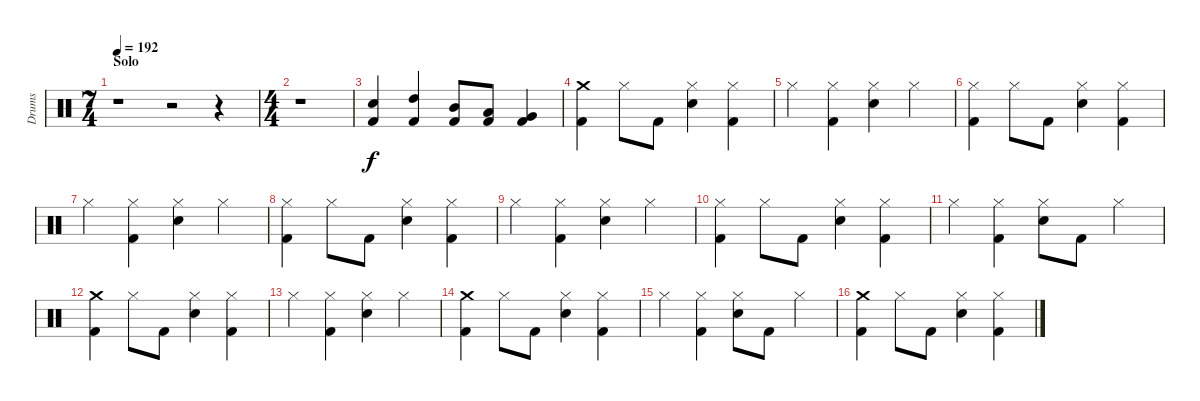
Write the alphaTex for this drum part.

\track ("Drums" "Drums") {instrument percussion}
\staff {score}
\articulation defaults
\ts (7 4)
\section ("" "Solo")
\tempo 192
\clef neutral
\ks c
r.1{dy f} r.2 r.4 |
\ts (4 4)
r.1 |
("Kick (hit) 2" "Electric Snare (hit)").4 ("Kick (hit) 2" "High Tom (hit)").4 ("Kick (hit) 2" "Mid Tom (hit)").8 ("Kick (hit) 2" "Low Tom (hit)").8 ("Kick (hit) 2" "Very Low Tom (hit)").4 |
("Kick (hit) 2" "Crash medium (hit)").4 "Hi-Hat (closed)".8 "Kick (hit) 2".8 ("Electric Snare (hit)" "Hi-Hat (closed)").4 ("Kick (hit) 2" "Hi-Hat (closed)").4 |
"Hi-Hat (closed)".4 ("Kick (hit) 2" "Hi-Hat (closed)").4 ("Electric Snare (hit)" "Hi-Hat (closed)").4 "Hi-Hat (closed)".4 |
("Kick (hit) 2" "Hi-Hat (closed)").4 "Hi-Hat (closed)".8 "Kick (hit) 2".8 ("Electric Snare (hit)" "Hi-Hat (closed)").4 ("Kick (hit) 2" "Hi-Hat (closed)").4 |
"Hi-Hat (closed)".4 ("Kick (hit) 2" "Hi-Hat (closed)").4 ("Electric Snare (hit)" "Hi-Hat (closed)").4 "Hi-Hat (closed)".4 |
("Kick (hit) 2" "Hi-Hat (closed)").4 "Hi-Hat (closed)".8 "Kick (hit) 2".8 ("Electric Snare (hit)" "Hi-Hat (closed)").4 ("Kick (hit) 2" "Hi-Hat (closed)").4 |
"Hi-Hat (closed)".4 ("Kick (hit) 2" "Hi-Hat (closed)").4 ("Electric Snare (hit)" "Hi-Hat (closed)").4 "Hi-Hat (closed)".4 |
("Kick (hit) 2" "Hi-Hat (closed)").4 "Hi-Hat (closed)".8 "Kick (hit) 2".8 ("Electric Snare (hit)" "Hi-Hat (closed)").4 ("Kick (hit) 2" "Hi-Hat (closed)").4 |
"Hi-Hat (closed)".4 ("Kick (hit) 2" "Hi-Hat (closed)").4 ("Electric Snare (hit)" "Hi-Hat (closed)").8 "Kick (hit) 2".8 "Hi-Hat (closed)".4 |
("Kick (hit) 2" "Crash medium (hit)").4 "Hi-Hat (closed)".8 "Kick (hit) 2".8 ("Electric Snare (hit)" "Hi-Hat (closed)").4 ("Kick (hit) 2" "Hi-Hat (closed)").4 |
"Hi-Hat (closed)".4 ("Kick (hit) 2" "Hi-Hat (closed)").4 ("Electric Snare (hit)" "Hi-Hat (closed)").4 "Hi-Hat (closed)".4 |
("Kick (hit) 2" "Crash medium (hit)").4 "Hi-Hat (closed)".8 "Kick (hit) 2".8 ("Electric Snare (hit)" "Hi-Hat (closed)").4 ("Kick (hit) 2" "Hi-Hat (closed)").4 |
"Hi-Hat (closed)".4 ("Kick (hit) 2" "Hi-Hat (closed)").4 ("Electric Snare (hit)" "Hi-Hat (closed)").8 "Kick (hit) 2".8 "Hi-Hat (closed)".4 |
("Kick (hit) 2" "Crash medium (hit)").4 "Hi-Hat (closed)".8 "Kick (hit) 2".8 ("Electric Snare (hit)" "Hi-Hat (closed)").4 ("Kick (hit) 2" "Hi-Hat (closed)").4
